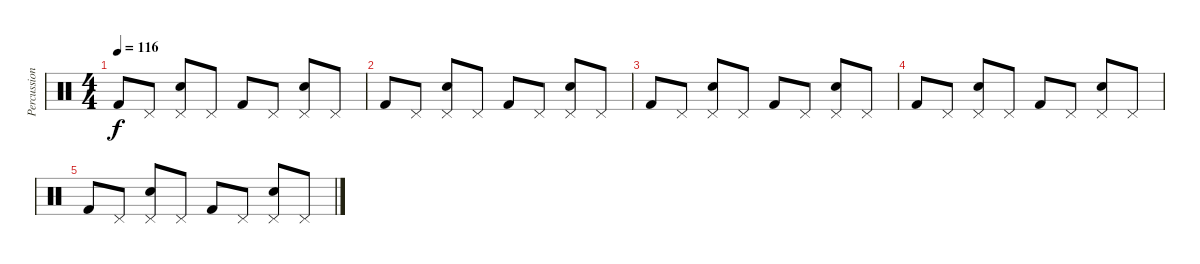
\track ("Percussion" "Percussion") {instrument percussion}
\staff {score}
\articulation defaults
\ts (4 4)
\tempo 116
\clef neutral
\ks c "Kick (hit) 2".8{dy f} "Pedal Hi-Hat (hit)".8
("Pedal Hi-Hat (hit)" "Snare (hit) 2").8 "Pedal Hi-Hat (hit)".8 "Kick (hit) 2".8 "Pedal Hi-Hat (hit)".8 ("Pedal Hi-Hat (hit)" "Snare (hit) 2").8 "Pedal Hi-Hat (hit)".8 |
"Kick (hit) 2".8 "Pedal Hi-Hat (hit)".8 ("Pedal Hi-Hat (hit)" "Snare (hit) 2").8 "Pedal Hi-Hat (hit)".8 "Kick (hit) 2".8 "Pedal Hi-Hat (hit)".8 ("Pedal Hi-Hat (hit)" "Snare (hit) 2").8 "Pedal Hi-Hat (hit)".8 |
"Kick (hit) 2".8 "Pedal Hi-Hat (hit)".8 ("Pedal Hi-Hat (hit)" "Snare (hit) 2").8 "Pedal Hi-Hat (hit)".8 "Kick (hit) 2".8 "Pedal Hi-Hat (hit)".8 ("Pedal Hi-Hat (hit)" "Snare (hit) 2").8 "Pedal Hi-Hat (hit)".8 |
"Kick (hit) 2".8 "Pedal Hi-Hat (hit)".8 ("Pedal Hi-Hat (hit)" "Snare (hit) 2").8 "Pedal Hi-Hat (hit)".8 "Kick (hit) 2".8 "Pedal Hi-Hat (hit)".8 ("Pedal Hi-Hat (hit)" "Snare (hit) 2").8 "Pedal Hi-Hat (hit)".8 |
"Kick (hit) 2".8 "Pedal Hi-Hat (hit)".8 ("Pedal Hi-Hat (hit)" "Snare (hit) 2").8 "Pedal Hi-Hat (hit)".8 "Kick (hit) 2".8 "Pedal Hi-Hat (hit)".8 ("Pedal Hi-Hat (hit)" "Snare (hit) 2").8 "Pedal Hi-Hat (hit)".8
